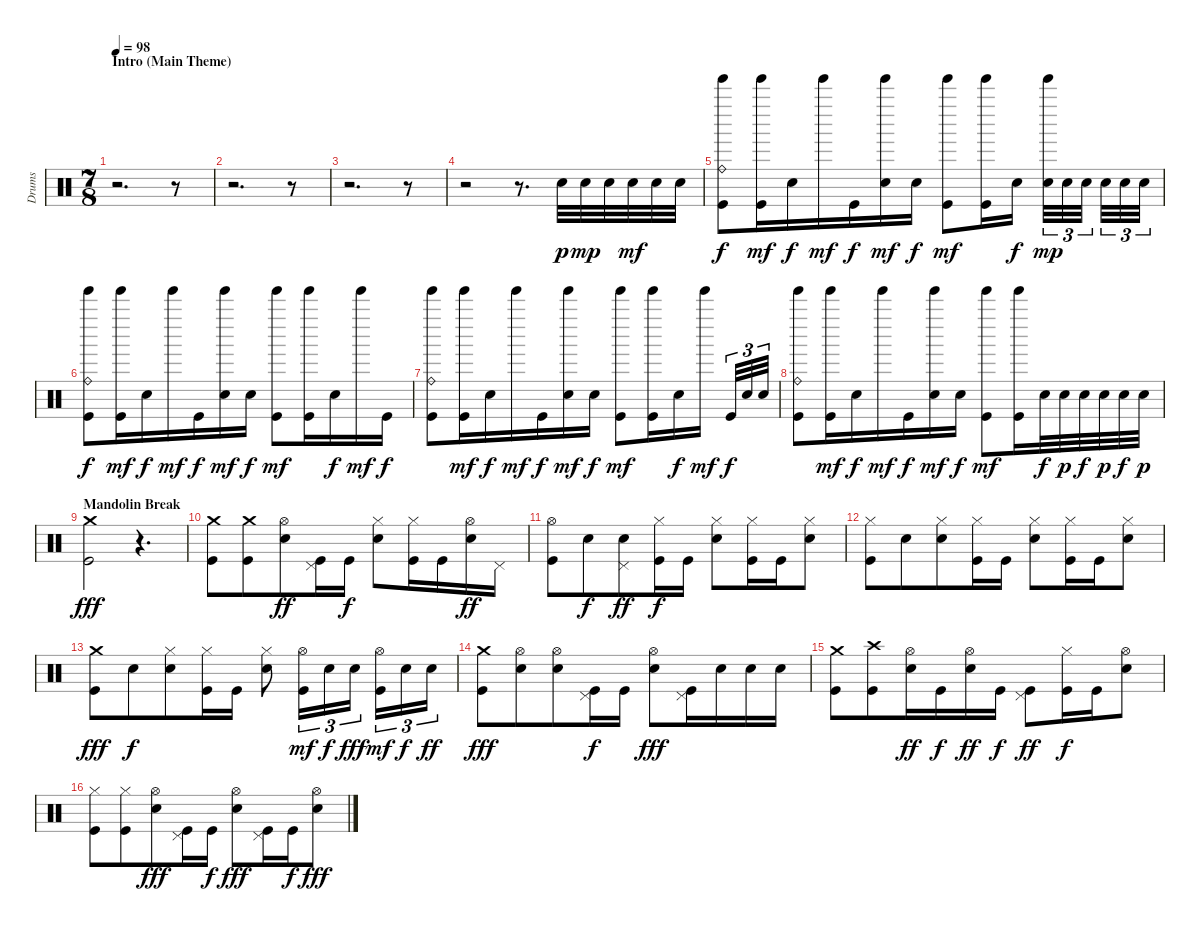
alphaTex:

\track ("Drums" "Drums") {instrument percussion}
\staff {score}
\articulation defaults
\ts (7 8)
\section ("" "Intro (Main Theme)")
\tempo 98
\clef neutral
\ks c
r.2{d dy p} r.8 |
r.2{d} r.8 |
r.2{d} r.8 |
r.2 r.8{d} "Electric Snare (hit)".32 "Electric Snare (hit)".32{dy mp} "Electric Snare (hit)".32 "Electric Snare (hit)".32{dy mf} "Electric Snare (hit)".32 "Electric Snare (hit)".32 |
("Ride (bell)" "Tinkle Bell (hit)" "Kick (hit)").8{dy f} ("Tinkle Bell (hit)" "Kick (hit)").16{dy mf} "Electric Snare (hit)".16{dy f} "Tinkle Bell (hit)".16{dy mf} "Kick (hit)".16{dy f} ("Tinkle Bell (hit)" "Electric Snare (hit)").16{dy mf} "Electric Snare (hit)".16{dy f} ("Tinkle Bell (hit)" "Kick (hit)").8{dy mf} ("Tinkle Bell (hit)" "Kick (hit)").16 "Electric Snare (hit)".16{dy f} ("Tinkle Bell (hit)" "Electric Snare (hit)").32{tu (3 2) dy mp} "Electric Snare (hit)".32{tu (3 2)} "Electric Snare (hit)".32{tu (3 2)} "Electric Snare (hit)".32{tu (3 2)} "Electric Snare (hit)".32{tu (3 2)} "Electric Snare (hit)".32{tu (3 2)} |
("Ride (bell)" "Tinkle Bell (hit)" "Kick (hit)").8{dy f} ("Tinkle Bell (hit)" "Kick (hit)").16{dy mf} "Electric Snare (hit)".16{dy f} "Tinkle Bell (hit)".16{dy mf} "Kick (hit)".16{dy f} ("Tinkle Bell (hit)" "Electric Snare (hit)").16{dy mf} "Electric Snare (hit)".16{dy f} ("Tinkle Bell (hit)" "Kick (hit)").8{dy mf} ("Tinkle Bell (hit)" "Kick (hit)").16 "Electric Snare (hit)".16{dy f} "Tinkle Bell (hit)".16{dy mf} "Kick (hit)".16{dy f} |
("Ride (bell)" "Tinkle Bell (hit)" "Kick (hit)").8 ("Tinkle Bell (hit)" "Kick (hit)").16{dy mf} "Electric Snare (hit)".16{dy f} "Tinkle Bell (hit)".16{dy mf} "Kick (hit)".16{dy f} ("Tinkle Bell (hit)" "Electric Snare (hit)").16{dy mf} "Electric Snare (hit)".16{dy f} ("Tinkle Bell (hit)" "Kick (hit)").8{dy mf} ("Tinkle Bell (hit)" "Kick (hit)").16 "Electric Snare (hit)".16{dy f} "Tinkle Bell (hit)".16{dy mf} "Kick (hit)".32{tu (3 2) dy f} "Electric Snare (hit)".32{tu (3 2)} "Electric Snare (hit)".32{tu (3 2)} |
("Ride (bell)" "Tinkle Bell (hit)" "Kick (hit)").8 ("Tinkle Bell (hit)" "Kick (hit)").16{dy mf} "Electric Snare (hit)".16{dy f} "Tinkle Bell (hit)".16{dy mf} "Kick (hit)".16{dy f} ("Tinkle Bell (hit)" "Electric Snare (hit)").16{dy mf} "Electric Snare (hit)".16{dy f} ("Tinkle Bell (hit)" "Kick (hit)").8{dy mf} ("Tinkle Bell (hit)" "Kick (hit)").16 "Electric Snare (hit)".32{dy f} "Electric Snare (hit)".32{dy p} "Electric Snare (hit)".32{dy f} "Electric Snare (hit)".32{dy p} "Electric Snare (hit)".32{dy f} "Electric Snare (hit)".32{dy p} |
\section ("" "Mandolin Break")
("Crash medium (hit)" "Kick (hit)").2{dy fff} r.4{d} |
("Crash medium (hit)" "Kick (hit)").8 ("Crash medium (hit)" "Kick (hit)").8 ("Hi-Hat (open)" "Electric Snare (hit)").8{dy ff} ("Pedal Hi-Hat (hit)" "Kick (hit)").16 "Kick (hit)".16{dy f} ("Hi-Hat (closed)" "Electric Snare (hit)").8 ("Hi-Hat (closed)" "Kick (hit)").16 "Kick (hit)".16 ("Hi-Hat (open)" "Electric Snare (hit)").16{dy ff} "Pedal Hi-Hat (hit)".16 |
("Hi-Hat (open)" "Kick (hit)").8 "Electric Snare (hit)".8{dy f} ("Pedal Hi-Hat (hit)" "Electric Snare (hit)").8{dy ff} ("Hi-Hat (closed)" "Kick (hit)").16{dy f} "Kick (hit)".16 ("Hi-Hat (closed)" "Electric Snare (hit)").8 ("Hi-Hat (closed)" "Kick (hit)").16 "Kick (hit)".16 ("Hi-Hat (closed)" "Electric Snare (hit)").8 |
("Hi-Hat (closed)" "Kick (hit)").8 "Electric Snare (hit)".8 ("Hi-Hat (closed)" "Electric Snare (hit)").8 ("Hi-Hat (closed)" "Kick (hit)").16 "Kick (hit)".16 ("Hi-Hat (closed)" "Electric Snare (hit)").8 ("Hi-Hat (closed)" "Kick (hit)").16 "Kick (hit)".16 ("Hi-Hat (closed)" "Electric Snare (hit)").8 |
("Crash medium (hit)" "Kick (hit)").8{dy fff} "Electric Snare (hit)".8{dy f} ("Hi-Hat (closed)" "Electric Snare (hit)").8 ("Hi-Hat (closed)" "Kick (hit)").16 "Kick (hit)".16 ("Hi-Hat (closed)" "Electric Snare (hit)").8 ("Hi-Hat (open)" "Kick (hit)").16{tu (3 2) dy mf} "Electric Snare (hit)".16{tu (3 2) dy f} "Electric Snare (hit)".16{tu (3 2) dy fff} ("Hi-Hat (open)" "Kick (hit)").16{tu (3 2) dy mf} "Electric Snare (hit)".16{tu (3 2) dy f} "Electric Snare (hit)".16{tu (3 2) dy ff} |
("Crash medium (hit)" "Kick (hit)").8{dy fff} ("Hi-Hat (open)" "Electric Snare (hit)").8 ("Hi-Hat (open)" "Electric Snare (hit)").8 ("Pedal Hi-Hat (hit)" "Kick (hit)").16{dy f} "Kick (hit)".16 ("Hi-Hat (open)" "Electric Snare (hit)").8{dy fff} ("Pedal Hi-Hat (hit)" "Kick (hit)").16 "Electric Snare (hit)".16 "Electric Snare (hit)".16 "Electric Snare (hit)".16 |
("Crash medium (hit)" "Kick (hit)").8 ("Crash high (hit)" "Kick (hit)").8 ("Hi-Hat (open)" "Electric Snare (hit)").16{dy ff} "Kick (hit)".16{dy f} ("Hi-Hat (open)" "Electric Snare (hit)").16{dy ff} "Kick (hit)".16{dy f} ("Pedal Hi-Hat (hit)" "Kick (hit)").8{dy ff} ("Hi-Hat (closed)" "Kick (hit)").16{dy f} "Kick (hit)".16 ("Hi-Hat (open)" "Electric Snare (hit)").8 |
("Hi-Hat (closed)" "Kick (hit)").8 ("Hi-Hat (closed)" "Kick (hit)").8 ("Hi-Hat (open)" "Electric Snare (hit)").8{dy fff} ("Pedal Hi-Hat (hit)" "Kick (hit)").16 "Kick (hit)".16{dy f} ("Hi-Hat (open)" "Electric Snare (hit)").8{dy fff} ("Pedal Hi-Hat (hit)" "Kick (hit)").16 "Kick (hit)".16{dy f} ("Hi-Hat (open)" "Electric Snare (hit)").8{dy fff}
